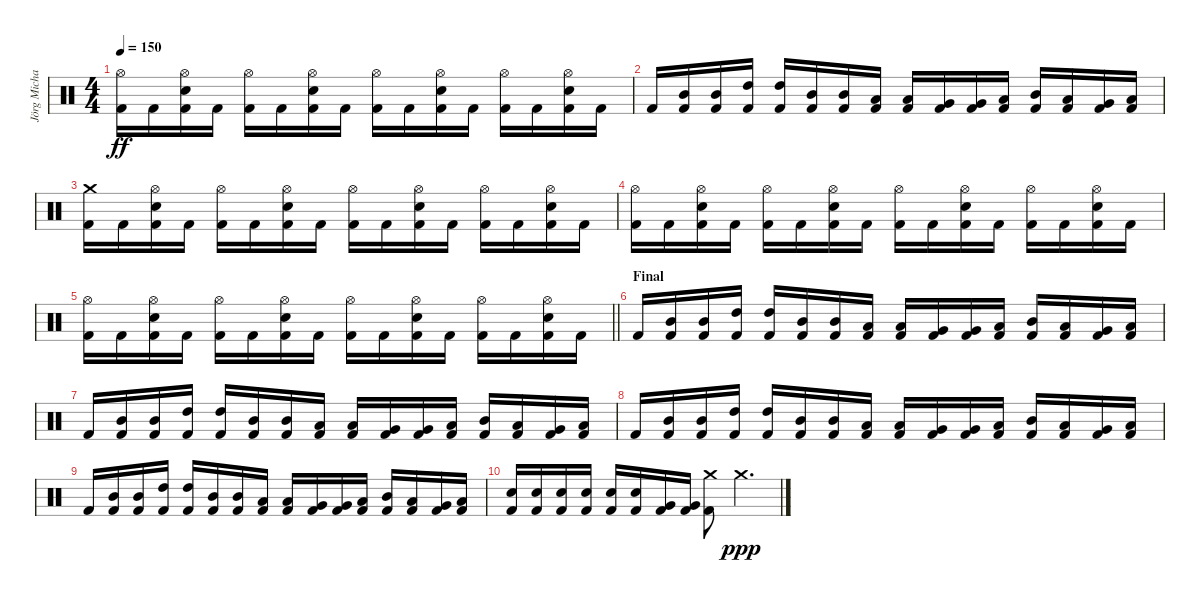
\track ("Jörg Michael" "Jörg Micha") {instrument percussion}
\staff {score}
\articulation defaults
\ts (4 4)
\tempo 150
\clef neutral
\ks c
("Hi-Hat (open)" "Kick (hit) 2").16{dy ff} "Kick (hit) 2".16 ("Hi-Hat (open)" "Electric Snare (hit)" "Kick (hit) 2").16 "Kick (hit) 2".16 ("Hi-Hat (open)" "Kick (hit) 2").16 "Kick (hit) 2".16 ("Hi-Hat (open)" "Electric Snare (hit)" "Kick (hit) 2").16 "Kick (hit) 2".16 ("Hi-Hat (open)" "Kick (hit) 2").16 "Kick (hit) 2".16 ("Hi-Hat (open)" "Electric Snare (hit)" "Kick (hit) 2").16 "Kick (hit) 2".16 ("Hi-Hat (open)" "Kick (hit) 2").16 "Kick (hit) 2".16 ("Hi-Hat (open)" "Electric Snare (hit)" "Kick (hit) 2").16 "Kick (hit) 2".16 |
"Kick (hit) 2".16 ("Mid Tom (hit)" "Kick (hit) 2").16 ("Mid Tom (hit)" "Kick (hit) 2").16 ("High Tom (hit)" "Kick (hit) 2").16 ("High Tom (hit)" "Kick (hit) 2").16 ("Mid Tom (hit)" "Kick (hit) 2").16 ("Mid Tom (hit)" "Kick (hit) 2").16 ("Low Tom (hit)" "Kick (hit) 2").16 ("Low Tom (hit)" "Kick (hit) 2").16 ("Very Low Tom (hit)" "Kick (hit) 2").16 ("Very Low Tom (hit)" "Kick (hit) 2").16 ("Low Tom (hit)" "Kick (hit) 2").16 ("Mid Tom (hit)" "Kick (hit) 2").16 ("Low Tom (hit)" "Kick (hit) 2").16 ("Very Low Tom (hit)" "Kick (hit) 2").16 ("Low Floor Tom (hit)" "Kick (hit) 2").16 |
("Crash medium (hit)" "Kick (hit) 2").16 "Kick (hit) 2".16 ("Hi-Hat (open)" "Electric Snare (hit)" "Kick (hit) 2").16 "Kick (hit) 2".16 ("Hi-Hat (open)" "Kick (hit) 2").16 "Kick (hit) 2".16 ("Hi-Hat (open)" "Electric Snare (hit)" "Kick (hit) 2").16 "Kick (hit) 2".16 ("Hi-Hat (open)" "Kick (hit) 2").16 "Kick (hit) 2".16 ("Hi-Hat (open)" "Electric Snare (hit)" "Kick (hit) 2").16 "Kick (hit) 2".16 ("Hi-Hat (open)" "Kick (hit) 2").16 "Kick (hit) 2".16 ("Hi-Hat (open)" "Electric Snare (hit)" "Kick (hit) 2").16 "Kick (hit) 2".16 |
("Hi-Hat (open)" "Kick (hit) 2").16 "Kick (hit) 2".16 ("Hi-Hat (open)" "Electric Snare (hit)" "Kick (hit) 2").16 "Kick (hit) 2".16 ("Hi-Hat (open)" "Kick (hit) 2").16 "Kick (hit) 2".16 ("Hi-Hat (open)" "Electric Snare (hit)" "Kick (hit) 2").16 "Kick (hit) 2".16 ("Hi-Hat (open)" "Kick (hit) 2").16 "Kick (hit) 2".16 ("Hi-Hat (open)" "Electric Snare (hit)" "Kick (hit) 2").16 "Kick (hit) 2".16 ("Hi-Hat (open)" "Kick (hit) 2").16 "Kick (hit) 2".16 ("Hi-Hat (open)" "Electric Snare (hit)" "Kick (hit) 2").16 "Kick (hit) 2".16 |
\barLineRight lightlight
("Hi-Hat (open)" "Kick (hit) 2").16 "Kick (hit) 2".16 ("Hi-Hat (open)" "Electric Snare (hit)" "Kick (hit) 2").16 "Kick (hit) 2".16 ("Hi-Hat (open)" "Kick (hit) 2").16 "Kick (hit) 2".16 ("Hi-Hat (open)" "Electric Snare (hit)" "Kick (hit) 2").16 "Kick (hit) 2".16 ("Hi-Hat (open)" "Kick (hit) 2").16 "Kick (hit) 2".16 ("Hi-Hat (open)" "Electric Snare (hit)" "Kick (hit) 2").16 "Kick (hit) 2".16 ("Hi-Hat (open)" "Kick (hit) 2").16 "Kick (hit) 2".16 ("Hi-Hat (open)" "Electric Snare (hit)" "Kick (hit) 2").16 "Kick (hit) 2".16 |
\section ("" "Final")
"Kick (hit) 2".16 ("Mid Tom (hit)" "Kick (hit) 2").16 ("Mid Tom (hit)" "Kick (hit) 2").16 ("High Tom (hit)" "Kick (hit) 2").16 ("High Tom (hit)" "Kick (hit) 2").16 ("Mid Tom (hit)" "Kick (hit) 2").16 ("Mid Tom (hit)" "Kick (hit) 2").16 ("Low Tom (hit)" "Kick (hit) 2").16 ("Low Tom (hit)" "Kick (hit) 2").16 ("Very Low Tom (hit)" "Kick (hit) 2").16 ("Very Low Tom (hit)" "Kick (hit) 2").16 ("Low Tom (hit)" "Kick (hit) 2").16 ("Mid Tom (hit)" "Kick (hit) 2").16 ("Low Tom (hit)" "Kick (hit) 2").16 ("Very Low Tom (hit)" "Kick (hit) 2").16 ("Low Floor Tom (hit)" "Kick (hit) 2").16 |
"Kick (hit) 2".16 ("Mid Tom (hit)" "Kick (hit) 2").16 ("Mid Tom (hit)" "Kick (hit) 2").16 ("High Tom (hit)" "Kick (hit) 2").16 ("High Tom (hit)" "Kick (hit) 2").16 ("Mid Tom (hit)" "Kick (hit) 2").16 ("Mid Tom (hit)" "Kick (hit) 2").16 ("Low Tom (hit)" "Kick (hit) 2").16 ("Low Tom (hit)" "Kick (hit) 2").16 ("Very Low Tom (hit)" "Kick (hit) 2").16 ("Very Low Tom (hit)" "Kick (hit) 2").16 ("Low Tom (hit)" "Kick (hit) 2").16 ("Mid Tom (hit)" "Kick (hit) 2").16 ("Low Tom (hit)" "Kick (hit) 2").16 ("Very Low Tom (hit)" "Kick (hit) 2").16 ("Low Floor Tom (hit)" "Kick (hit) 2").16 |
"Kick (hit) 2".16 ("Mid Tom (hit)" "Kick (hit) 2").16 ("Mid Tom (hit)" "Kick (hit) 2").16 ("High Tom (hit)" "Kick (hit) 2").16 ("High Tom (hit)" "Kick (hit) 2").16 ("Mid Tom (hit)" "Kick (hit) 2").16 ("Mid Tom (hit)" "Kick (hit) 2").16 ("Low Tom (hit)" "Kick (hit) 2").16 ("Low Tom (hit)" "Kick (hit) 2").16 ("Very Low Tom (hit)" "Kick (hit) 2").16 ("Very Low Tom (hit)" "Kick (hit) 2").16 ("Low Tom (hit)" "Kick (hit) 2").16 ("Mid Tom (hit)" "Kick (hit) 2").16 ("Low Tom (hit)" "Kick (hit) 2").16 ("Very Low Tom (hit)" "Kick (hit) 2").16 ("Low Floor Tom (hit)" "Kick (hit) 2").16 |
"Kick (hit) 2".16 ("Mid Tom (hit)" "Kick (hit) 2").16 ("Mid Tom (hit)" "Kick (hit) 2").16 ("High Tom (hit)" "Kick (hit) 2").16 ("High Tom (hit)" "Kick (hit) 2").16 ("Mid Tom (hit)" "Kick (hit) 2").16 ("Mid Tom (hit)" "Kick (hit) 2").16 ("Low Tom (hit)" "Kick (hit) 2").16 ("Low Tom (hit)" "Kick (hit) 2").16 ("Very Low Tom (hit)" "Kick (hit) 2").16 ("Very Low Tom (hit)" "Kick (hit) 2").16 ("Low Tom (hit)" "Kick (hit) 2").16 ("Mid Tom (hit)" "Kick (hit) 2").16 ("Low Tom (hit)" "Kick (hit) 2").16 ("Very Low Tom (hit)" "Kick (hit) 2").16 ("Low Floor Tom (hit)" "Kick (hit) 2").16 |
("Electric Snare (hit)" "Kick (hit) 2").16 ("Electric Snare (hit)" "Kick (hit) 2").16 ("Electric Snare (hit)" "Kick (hit) 2").16 ("Electric Snare (hit)" "Kick (hit) 2").16 ("Electric Snare (hit)" "Kick (hit) 2").16 ("Electric Snare (hit)" "Kick (hit) 2").16 ("Very Low Tom (hit)" "Kick (hit) 2").16 ("Very Low Tom (hit)" "Kick (hit) 2").16 ("Crash medium (hit)" "Kick (hit) 2").8 "Crash medium (hit)".4{d dy ppp}
